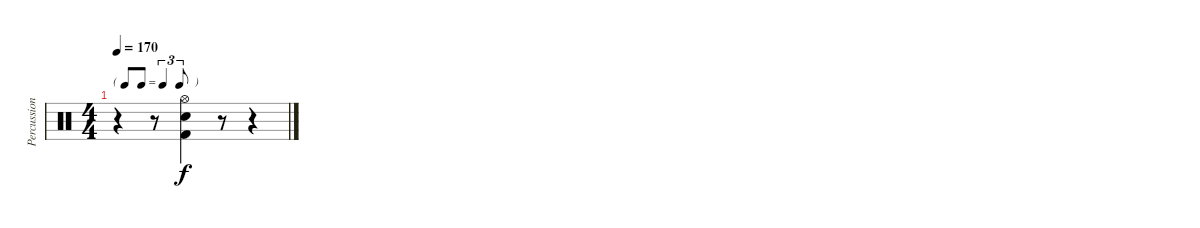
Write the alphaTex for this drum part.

\track ("Percussion" "Percussion") {instrument percussion}
\staff {score}
\articulation defaults
\ts (4 4)
\tf triplet8th
\tempo 170
\clef neutral
\ks c
r.4{dy f} r.8 ("Hi-Hat (open)" "Snare (hit) 2" "Kick (hit) 2").4 r.8 r.4
